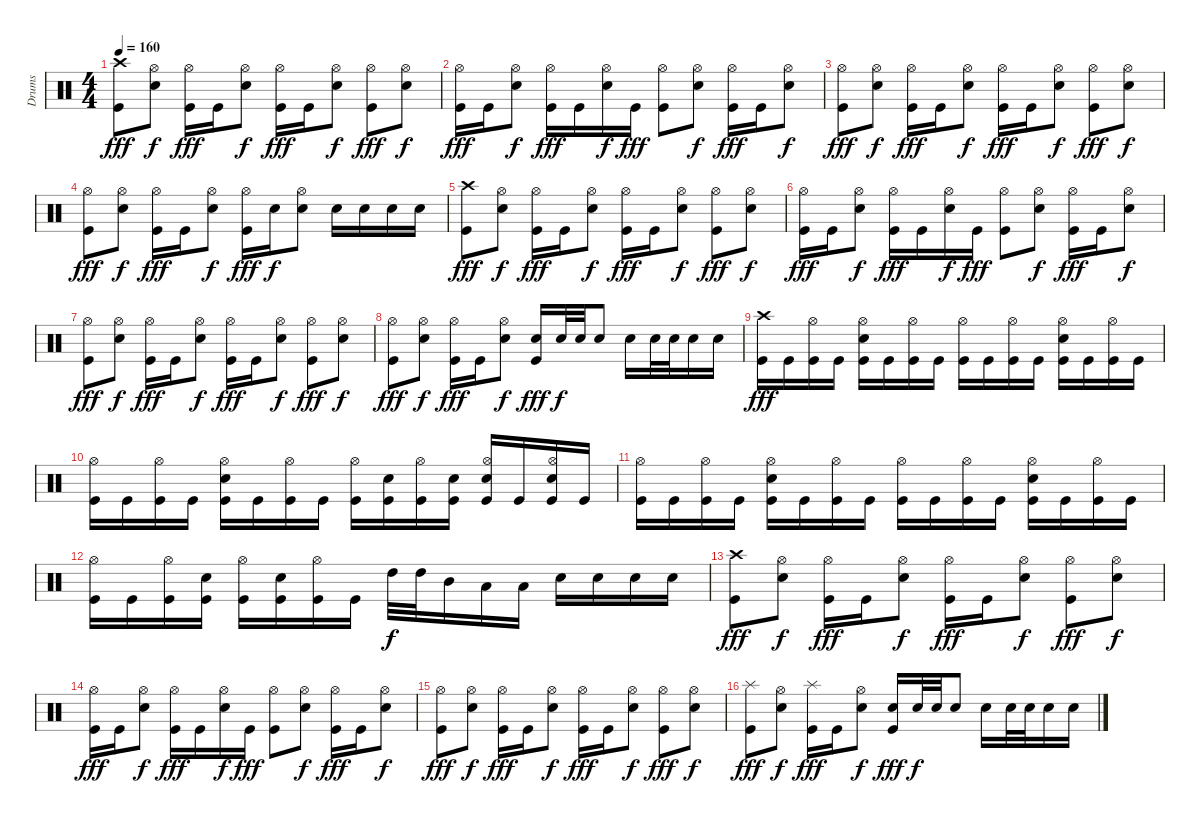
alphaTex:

\track ("Drums" "Drums") {instrument percussion}
\staff {score}
\articulation defaults
\ts (4 4)
\tempo 160
\clef neutral
\ks c
("Crash high (hit)" "Kick (hit)").8{dy fff} ("Hi-Hat (open)" "Electric Snare (hit)").8{dy f} ("Hi-Hat (open)" "Kick (hit)").16{dy fff} "Kick (hit)".16 ("Hi-Hat (open)" "Electric Snare (hit)").8{dy f} ("Hi-Hat (open)" "Kick (hit)").16{dy fff} "Kick (hit)".16 ("Hi-Hat (open)" "Electric Snare (hit)").8{dy f} ("Hi-Hat (open)" "Kick (hit)").8{dy fff} ("Hi-Hat (open)" "Electric Snare (hit)").8{dy f} |
("Hi-Hat (open)" "Kick (hit)").16{dy fff} "Kick (hit)".16 ("Hi-Hat (open)" "Electric Snare (hit)").8{dy f} ("Hi-Hat (open)" "Kick (hit)").16{dy fff} "Kick (hit)".16 ("Hi-Hat (open)" "Electric Snare (hit)").16{dy f} "Kick (hit)".16{dy fff} ("Hi-Hat (open)" "Kick (hit)").8 ("Hi-Hat (open)" "Electric Snare (hit)").8{dy f} ("Hi-Hat (open)" "Kick (hit)").16{dy fff} "Kick (hit)".16 ("Hi-Hat (open)" "Electric Snare (hit)").8{dy f} |
("Hi-Hat (open)" "Kick (hit)").8{dy fff} ("Hi-Hat (open)" "Electric Snare (hit)").8{dy f} ("Hi-Hat (open)" "Kick (hit)").16{dy fff} "Kick (hit)".16 ("Hi-Hat (open)" "Electric Snare (hit)").8{dy f} ("Hi-Hat (open)" "Kick (hit)").16{dy fff} "Kick (hit)".16 ("Hi-Hat (open)" "Electric Snare (hit)").8{dy f} ("Hi-Hat (open)" "Kick (hit)").8{dy fff} ("Hi-Hat (open)" "Electric Snare (hit)").8{dy f} |
("Hi-Hat (open)" "Kick (hit)").8{dy fff} ("Hi-Hat (open)" "Electric Snare (hit)").8{dy f} ("Hi-Hat (open)" "Kick (hit)").16{dy fff} "Kick (hit)".16 ("Hi-Hat (open)" "Electric Snare (hit)").8{dy f} ("Hi-Hat (open)" "Kick (hit)").16{dy fff} "Electric Snare (hit)".16{dy f} ("Hi-Hat (open)" "Electric Snare (hit)").8 "Electric Snare (hit)".16 "Electric Snare (hit)".16 "Electric Snare (hit)".16 "Electric Snare (hit)".16 |
("Crash high (hit)" "Kick (hit)").8{dy fff} ("Hi-Hat (open)" "Electric Snare (hit)").8{dy f} ("Hi-Hat (open)" "Kick (hit)").16{dy fff} "Kick (hit)".16 ("Hi-Hat (open)" "Electric Snare (hit)").8{dy f} ("Hi-Hat (open)" "Kick (hit)").16{dy fff} "Kick (hit)".16 ("Hi-Hat (open)" "Electric Snare (hit)").8{dy f} ("Hi-Hat (open)" "Kick (hit)").8{dy fff} ("Hi-Hat (open)" "Electric Snare (hit)").8{dy f} |
("Hi-Hat (open)" "Kick (hit)").16{dy fff} "Kick (hit)".16 ("Hi-Hat (open)" "Electric Snare (hit)").8{dy f} ("Hi-Hat (open)" "Kick (hit)").16{dy fff} "Kick (hit)".16 ("Hi-Hat (open)" "Electric Snare (hit)").16{dy f} "Kick (hit)".16{dy fff} ("Hi-Hat (open)" "Kick (hit)").8 ("Hi-Hat (open)" "Electric Snare (hit)").8{dy f} ("Hi-Hat (open)" "Kick (hit)").16{dy fff} "Kick (hit)".16 ("Hi-Hat (open)" "Electric Snare (hit)").8{dy f} |
("Hi-Hat (open)" "Kick (hit)").8{dy fff} ("Hi-Hat (open)" "Electric Snare (hit)").8{dy f} ("Hi-Hat (open)" "Kick (hit)").16{dy fff} "Kick (hit)".16 ("Hi-Hat (open)" "Electric Snare (hit)").8{dy f} ("Hi-Hat (open)" "Kick (hit)").16{dy fff} "Kick (hit)".16 ("Hi-Hat (open)" "Electric Snare (hit)").8{dy f} ("Hi-Hat (open)" "Kick (hit)").8{dy fff} ("Hi-Hat (open)" "Electric Snare (hit)").8{dy f} |
("Hi-Hat (open)" "Kick (hit)").8{dy fff} ("Hi-Hat (open)" "Electric Snare (hit)").8{dy f} ("Hi-Hat (open)" "Kick (hit)").16{dy fff} "Kick (hit)".16 ("Hi-Hat (open)" "Electric Snare (hit)").8{dy f} ("Electric Snare (hit)" "Kick (hit)").16{dy fff} "Electric Snare (hit)".32{dy f} "Electric Snare (hit)".32 "Electric Snare (hit)".8 "Electric Snare (hit)".16 "Electric Snare (hit)".32 "Electric Snare (hit)".32 "Electric Snare (hit)".16 "Electric Snare (hit)".16 |
("Crash high (hit)" "Kick (hit)").16{dy fff} "Kick (hit)".16 ("Hi-Hat (open)" "Kick (hit)").16 "Kick (hit)".16 ("Hi-Hat (open)" "Electric Snare (hit)" "Kick (hit)").16 "Kick (hit)".16 ("Hi-Hat (open)" "Kick (hit)").16 "Kick (hit)".16 ("Hi-Hat (open)" "Kick (hit)").16 "Kick (hit)".16 ("Hi-Hat (open)" "Kick (hit)").16 "Kick (hit)".16 ("Hi-Hat (open)" "Electric Snare (hit)" "Kick (hit)").16 "Kick (hit)".16 ("Hi-Hat (open)" "Kick (hit)").16 "Kick (hit)".16 |
("Hi-Hat (open)" "Kick (hit)").16 "Kick (hit)".16 ("Hi-Hat (open)" "Kick (hit)").16 "Kick (hit)".16 ("Hi-Hat (open)" "Electric Snare (hit)" "Kick (hit)").16 "Kick (hit)".16 ("Hi-Hat (open)" "Kick (hit)").16 "Kick (hit)".16 ("Hi-Hat (open)" "Kick (hit)").16 ("Electric Snare (hit)" "Kick (hit)").16 ("Hi-Hat (open)" "Kick (hit)").16 ("Electric Snare (hit)" "Kick (hit)").16 ("Hi-Hat (open)" "Electric Snare (hit)" "Kick (hit)").16 "Kick (hit)".16 ("Hi-Hat (open)" "Electric Snare (hit)" "Kick (hit)").16 "Kick (hit)".16 |
("Hi-Hat (open)" "Kick (hit)").16 "Kick (hit)".16 ("Hi-Hat (open)" "Kick (hit)").16 "Kick (hit)".16 ("Hi-Hat (open)" "Electric Snare (hit)" "Kick (hit)").16 "Kick (hit)".16 ("Hi-Hat (open)" "Kick (hit)").16 "Kick (hit)".16 ("Hi-Hat (open)" "Kick (hit)").16 "Kick (hit)".16 ("Hi-Hat (open)" "Kick (hit)").16 "Kick (hit)".16 ("Hi-Hat (open)" "Electric Snare (hit)" "Kick (hit)").16 "Kick (hit)".16 ("Hi-Hat (open)" "Kick (hit)").16 "Kick (hit)".16 |
("Hi-Hat (open)" "Kick (hit)").16 "Kick (hit)".16 ("Hi-Hat (open)" "Kick (hit)").16 ("Electric Snare (hit)" "Kick (hit)").16 ("Hi-Hat (open)" "Kick (hit)").16 ("Electric Snare (hit)" "Kick (hit)").16 ("Hi-Hat (open)" "Kick (hit)").16 "Kick (hit)".16 "High Tom (hit)".32{dy f} "High Tom (hit)".32 "Mid Tom (hit)".16 "Low Tom (hit)".16 "Low Tom (hit)".16 "Electric Snare (hit)".16 "Electric Snare (hit)".16 "Electric Snare (hit)".16 "Electric Snare (hit)".16 |
("Crash high (hit)" "Kick (hit)").8{dy fff} ("Hi-Hat (open)" "Electric Snare (hit)").8{dy f} ("Hi-Hat (open)" "Kick (hit)").16{dy fff} "Kick (hit)".16 ("Hi-Hat (open)" "Electric Snare (hit)").8{dy f} ("Hi-Hat (open)" "Kick (hit)").16{dy fff} "Kick (hit)".16 ("Hi-Hat (open)" "Electric Snare (hit)").8{dy f} ("Hi-Hat (open)" "Kick (hit)").8{dy fff} ("Hi-Hat (open)" "Electric Snare (hit)").8{dy f} |
("Hi-Hat (open)" "Kick (hit)").16{dy fff} "Kick (hit)".16 ("Hi-Hat (open)" "Electric Snare (hit)").8{dy f} ("Hi-Hat (open)" "Kick (hit)").16{dy fff} "Kick (hit)".16 ("Hi-Hat (open)" "Electric Snare (hit)").16{dy f} "Kick (hit)".16{dy fff} ("Hi-Hat (open)" "Kick (hit)").8 ("Hi-Hat (open)" "Electric Snare (hit)").8{dy f} ("Hi-Hat (open)" "Kick (hit)").16{dy fff} "Kick (hit)".16 ("Hi-Hat (open)" "Electric Snare (hit)").8{dy f} |
("Hi-Hat (open)" "Kick (hit)").8{dy fff} ("Hi-Hat (open)" "Electric Snare (hit)").8{dy f} ("Hi-Hat (open)" "Kick (hit)").16{dy fff} "Kick (hit)".16 ("Hi-Hat (open)" "Electric Snare (hit)").8{dy f} ("Hi-Hat (open)" "Kick (hit)").16{dy fff} "Kick (hit)".16 ("Hi-Hat (open)" "Electric Snare (hit)").8{dy f} ("Hi-Hat (open)" "Kick (hit)").8{dy fff} ("Hi-Hat (open)" "Electric Snare (hit)").8{dy f} |
("Splash (hit)" "Kick (hit)").8{dy fff} ("Hi-Hat (open)" "Electric Snare (hit)").8{dy f} ("Splash (hit)" "Kick (hit)").16{dy fff} "Kick (hit)".16 ("Hi-Hat (open)" "Electric Snare (hit)").8{dy f} ("Electric Snare (hit)" "Kick (hit)").16{dy fff} "Electric Snare (hit)".32{dy f} "Electric Snare (hit)".32 "Electric Snare (hit)".8 "Electric Snare (hit)".16 "Electric Snare (hit)".32 "Electric Snare (hit)".32 "Electric Snare (hit)".16 "Electric Snare (hit)".16
